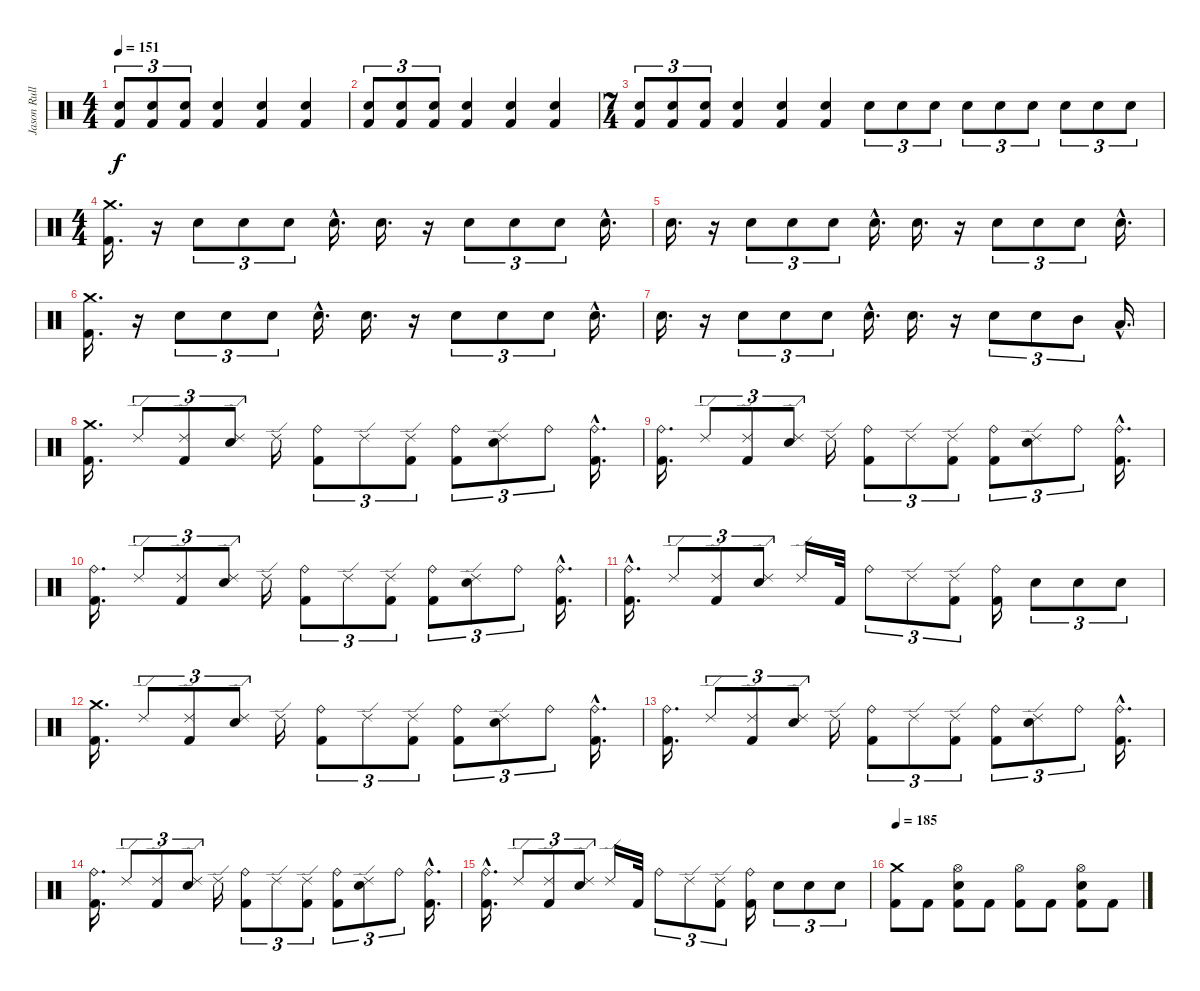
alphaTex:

\track ("Jason Rullo" "Jason Rull") {instrument percussion}
\staff {score}
\articulation defaults
\ts (4 4)
\tempo 151
\clef neutral
\ks c
("Kick (hit) 2" "Electric Snare (hit)").8{tu (3 2) dy f} ("Kick (hit) 2" "Electric Snare (hit)").8{tu (3 2)} ("Kick (hit) 2" "Electric Snare (hit)").8{tu (3 2)} ("Kick (hit) 2" "Electric Snare (hit)").4 ("Kick (hit) 2" "Electric Snare (hit)").4 ("Kick (hit) 2" "Electric Snare (hit)").4 |
("Kick (hit) 2" "Electric Snare (hit)").8{tu (3 2)} ("Kick (hit) 2" "Electric Snare (hit)").8{tu (3 2)} ("Kick (hit) 2" "Electric Snare (hit)").8{tu (3 2)} ("Kick (hit) 2" "Electric Snare (hit)").4 ("Kick (hit) 2" "Electric Snare (hit)").4 ("Kick (hit) 2" "Electric Snare (hit)").4 |
\ts (7 4)
("Kick (hit) 2" "Electric Snare (hit)").8{tu (3 2)} ("Kick (hit) 2" "Electric Snare (hit)").8{tu (3 2)} ("Kick (hit) 2" "Electric Snare (hit)").8{tu (3 2)} ("Kick (hit) 2" "Electric Snare (hit)").4 ("Kick (hit) 2" "Electric Snare (hit)").4 ("Kick (hit) 2" "Electric Snare (hit)").4 "Electric Snare (hit)".8{tu (3 2)} "Electric Snare (hit)".8{tu (3 2)} "Electric Snare (hit)".8{tu (3 2)} "Electric Snare (hit)".8{tu (3 2)} "Electric Snare (hit)".8{tu (3 2)} "Electric Snare (hit)".8{tu (3 2)} "Electric Snare (hit)".8{tu (3 2)} "Electric Snare (hit)".8{tu (3 2)} "Electric Snare (hit)".8{tu (3 2)} |
\ts (4 4)
("Crash medium (hit)" "Kick (hit) 2").16{d} r.16 "Electric Snare (hit)".8{tu (3 2)} "Electric Snare (hit)".8{tu (3 2)} "Electric Snare (hit)".8{tu (3 2)} "Electric Snare (hit)"{hac}.16{d} "Electric Snare (hit)".16{d} r.16 "Electric Snare (hit)".8{tu (3 2)} "Electric Snare (hit)".8{tu (3 2)} "Electric Snare (hit)".8{tu (3 2)} "Electric Snare (hit)"{hac}.16{d} |
"Electric Snare (hit)".16{d} r.16 "Electric Snare (hit)".8{tu (3 2)} "Electric Snare (hit)".8{tu (3 2)} "Electric Snare (hit)".8{tu (3 2)} "Electric Snare (hit)"{hac}.16{d} "Electric Snare (hit)".16{d} r.16 "Electric Snare (hit)".8{tu (3 2)} "Electric Snare (hit)".8{tu (3 2)} "Electric Snare (hit)".8{tu (3 2)} "Electric Snare (hit)"{hac}.16{d} |
("Crash medium (hit)" "Kick (hit) 2").16{d} r.16 "Electric Snare (hit)".8{tu (3 2)} "Electric Snare (hit)".8{tu (3 2)} "Electric Snare (hit)".8{tu (3 2)} "Electric Snare (hit)"{hac}.16{d} "Electric Snare (hit)".16{d} r.16 "Electric Snare (hit)".8{tu (3 2)} "Electric Snare (hit)".8{tu (3 2)} "Electric Snare (hit)".8{tu (3 2)} "Electric Snare (hit)"{hac}.16{d} |
"Electric Snare (hit)".16{d} r.16 "Electric Snare (hit)".8{tu (3 2)} "Electric Snare (hit)".8{tu (3 2)} "Electric Snare (hit)".8{tu (3 2)} "Electric Snare (hit)"{hac}.16{d} "Electric Snare (hit)".16{d} r.16 "Electric Snare (hit)".8{tu (3 2)} "Electric Snare (hit)".8{tu (3 2)} "Mid Tom (hit)".8{tu (3 2)} "Low Tom (hit)"{hac}.16{d} |
("Crash medium (hit)" "Kick (hit) 2").16{d} "Ride (edge) 2".8{tu (3 2)} ("Ride (edge) 2" "Kick (hit) 2").8{tu (3 2)} ("Ride (edge) 2" "Electric Snare (hit)").8{tu (3 2)} "Ride (edge) 2".16 ("Ride (bell)" "Kick (hit) 2").8{tu (3 2)} "Ride (edge) 2".8{tu (3 2)} ("Ride (edge) 2" "Kick (hit) 2").8{tu (3 2)} ("Ride (bell)" "Kick (hit) 2").8{tu (3 2)} ("Ride (edge) 2" "Electric Snare (hit)").8{tu (3 2)} "Ride (bell)".8{tu (3 2)} ("Ride (bell)"{hac} "Kick (hit) 2"{hac}).16{d} |
("Ride (bell)" "Kick (hit) 2").16{d} "Ride (edge) 2".8{tu (3 2)} ("Ride (edge) 2" "Kick (hit) 2").8{tu (3 2)} ("Ride (edge) 2" "Electric Snare (hit)").8{tu (3 2)} "Ride (edge) 2".16 ("Ride (bell)" "Kick (hit) 2").8{tu (3 2)} "Ride (edge) 2".8{tu (3 2)} ("Ride (edge) 2" "Kick (hit) 2").8{tu (3 2)} ("Ride (bell)" "Kick (hit) 2").8{tu (3 2)} ("Ride (edge) 2" "Electric Snare (hit)").8{tu (3 2)} "Ride (bell)".8{tu (3 2)} ("Ride (bell)"{hac} "Kick (hit) 2"{hac}).16{d} |
("Ride (bell)" "Kick (hit) 2").16{d} "Ride (edge) 2".8{tu (3 2)} ("Ride (edge) 2" "Kick (hit) 2").8{tu (3 2)} ("Ride (edge) 2" "Electric Snare (hit)").8{tu (3 2)} "Ride (edge) 2".16 ("Ride (bell)" "Kick (hit) 2").8{tu (3 2)} "Ride (edge) 2".8{tu (3 2)} ("Ride (edge) 2" "Kick (hit) 2").8{tu (3 2)} ("Ride (bell)" "Kick (hit) 2").8{tu (3 2)} ("Ride (edge) 2" "Electric Snare (hit)").8{tu (3 2)} "Ride (bell)".8{tu (3 2)} ("Ride (bell)"{hac} "Kick (hit) 2"{hac}).16{d} |
("Ride (bell)"{hac} "Kick (hit) 2"{hac}).16{d} "Ride (edge) 2".8{tu (3 2)} ("Ride (edge) 2" "Kick (hit) 2").8{tu (3 2)} ("Ride (edge) 2" "Electric Snare (hit)").8{tu (3 2)} "Ride (edge) 2".16 "Kick (hit) 2".32 "Ride (bell)".8{tu (3 2)} "Ride (edge) 2".8{tu (3 2)} ("Ride (edge) 2" "Kick (hit) 2").8{tu (3 2)} ("Ride (bell)" "Kick (hit) 2").16 "Electric Snare (hit)".8{tu (3 2)} "Electric Snare (hit)".8{tu (3 2)} "Electric Snare (hit)".8{tu (3 2)} |
("Crash medium (hit)" "Kick (hit) 2").16{d} "Ride (edge) 2".8{tu (3 2)} ("Ride (edge) 2" "Kick (hit) 2").8{tu (3 2)} ("Ride (edge) 2" "Electric Snare (hit)").8{tu (3 2)} "Ride (edge) 2".16 ("Ride (bell)" "Kick (hit) 2").8{tu (3 2)} "Ride (edge) 2".8{tu (3 2)} ("Ride (edge) 2" "Kick (hit) 2").8{tu (3 2)} ("Ride (bell)" "Kick (hit) 2").8{tu (3 2)} ("Ride (edge) 2" "Electric Snare (hit)").8{tu (3 2)} "Ride (bell)".8{tu (3 2)} ("Ride (bell)"{hac} "Kick (hit) 2"{hac}).16{d} |
("Ride (bell)" "Kick (hit) 2").16{d} "Ride (edge) 2".8{tu (3 2)} ("Ride (edge) 2" "Kick (hit) 2").8{tu (3 2)} ("Ride (edge) 2" "Electric Snare (hit)").8{tu (3 2)} "Ride (edge) 2".16 ("Ride (bell)" "Kick (hit) 2").8{tu (3 2)} "Ride (edge) 2".8{tu (3 2)} ("Ride (edge) 2" "Kick (hit) 2").8{tu (3 2)} ("Ride (bell)" "Kick (hit) 2").8{tu (3 2)} ("Ride (edge) 2" "Electric Snare (hit)").8{tu (3 2)} "Ride (bell)".8{tu (3 2)} ("Ride (bell)"{hac} "Kick (hit) 2"{hac}).16{d} |
("Ride (bell)" "Kick (hit) 2").16{d} "Ride (edge) 2".8{tu (3 2)} ("Ride (edge) 2" "Kick (hit) 2").8{tu (3 2)} ("Ride (edge) 2" "Electric Snare (hit)").8{tu (3 2)} "Ride (edge) 2".16 ("Ride (bell)" "Kick (hit) 2").8{tu (3 2)} "Ride (edge) 2".8{tu (3 2)} ("Ride (edge) 2" "Kick (hit) 2").8{tu (3 2)} ("Ride (bell)" "Kick (hit) 2").8{tu (3 2)} ("Ride (edge) 2" "Electric Snare (hit)").8{tu (3 2)} "Ride (bell)".8{tu (3 2)} ("Ride (bell)"{hac} "Kick (hit) 2"{hac}).16{d} |
("Ride (bell)"{hac} "Kick (hit) 2"{hac}).16{d} "Ride (edge) 2".8{tu (3 2)} ("Ride (edge) 2" "Kick (hit) 2").8{tu (3 2)} ("Ride (edge) 2" "Electric Snare (hit)").8{tu (3 2)} "Ride (edge) 2".16 "Kick (hit) 2".32 "Ride (bell)".8{tu (3 2)} "Ride (edge) 2".8{tu (3 2)} ("Ride (edge) 2" "Kick (hit) 2").8{tu (3 2)} ("Ride (bell)" "Kick (hit) 2").16 "Electric Snare (hit)".8{tu (3 2)} "Electric Snare (hit)".8{tu (3 2)} "Electric Snare (hit)".8{tu (3 2)} |
\tempo 185
("Crash medium (hit)" "Kick (hit) 2").8 "Kick (hit) 2".8 ("Hi-Hat (open)" "Electric Snare (hit)" "Kick (hit) 2").8 "Kick (hit) 2".8 ("Hi-Hat (open)" "Kick (hit) 2").8 "Kick (hit) 2".8 ("Hi-Hat (open)" "Electric Snare (hit)" "Kick (hit) 2").8 "Kick (hit) 2".8
